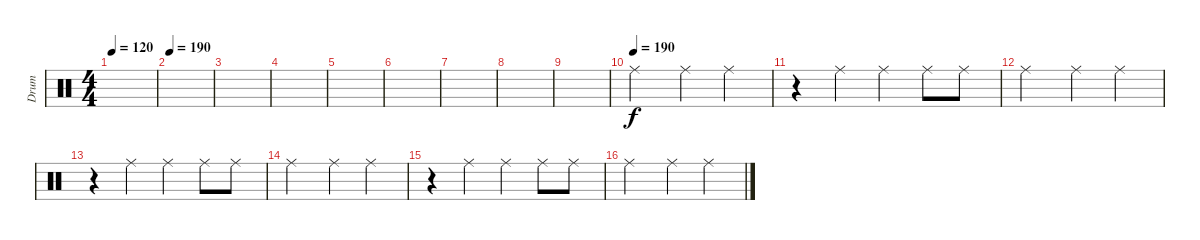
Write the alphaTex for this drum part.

\track ("Drum" "Drum") {instrument percussion}
\staff {score}
\articulation defaults
\ts (4 4)
\tempo 120
\clef neutral
\ks c
|
\tempo 190
|
|
|
|
|
|
|
|
\tempo (190)
"Ride (middle)".2 "Ride (middle)".4 "Ride (middle)".4 |
r.4 "Ride (middle)".4 "Ride (middle)".4 "Ride (middle)".8 "Ride (middle)".8 |
"Ride (middle)".2 "Ride (middle)".4 "Ride (middle)".4 |
r.4 "Ride (middle)".4 "Ride (middle)".4 "Ride (middle)".8 "Ride (middle)".8 |
"Ride (middle)".2 "Ride (middle)".4 "Ride (middle)".4 |
r.4 "Ride (middle)".4 "Ride (middle)".4 "Ride (middle)".8 "Ride (middle)".8 |
"Ride (middle)".2 "Ride (middle)".4 "Ride (middle)".4
